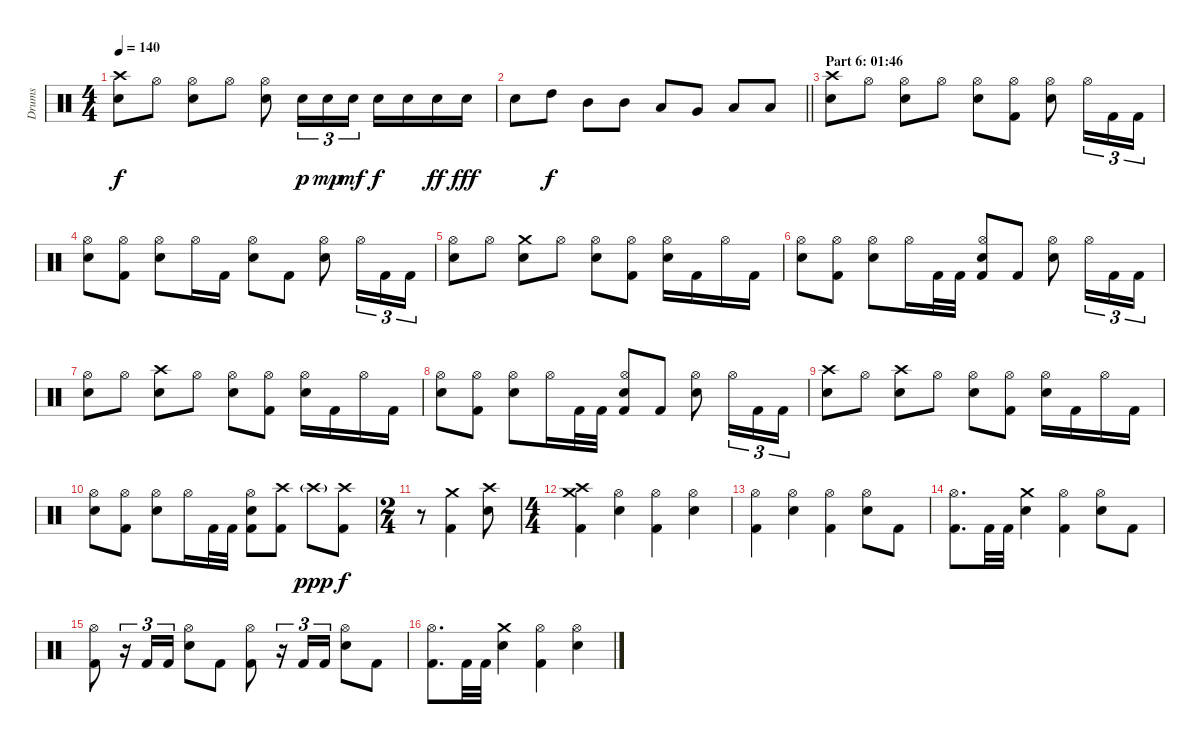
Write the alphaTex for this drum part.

\track ("Drums" "Drums") {instrument percussion}
\staff {score}
\articulation defaults
\ts (4 4)
\tempo 140
\clef neutral
\ks c
("Crash high (hit)" "Electric Snare (hit)").8{dy f} "Hi-Hat (open)".8 ("Hi-Hat (open)" "Electric Snare (hit)").8 "Hi-Hat (open)".8 ("Hi-Hat (open)" "Electric Snare (hit)").8 "Electric Snare (hit)".16{tu (3 2) dy p} "Electric Snare (hit)".16{tu (3 2) dy mp} "Electric Snare (hit)".16{tu (3 2) dy mf} "Electric Snare (hit)".16{dy f} "Electric Snare (hit)".16 "Electric Snare (hit)".16{dy ff} "Electric Snare (hit)".16{dy fff} |
\barLineRight lightlight "Electric Snare (hit)".8 "High Tom (hit)".8{dy f} "Mid Tom (hit)".8 "Mid Tom (hit)".8 "Low Tom (hit)".8 "Very Low Tom (hit)".8 "Low Floor Tom (hit)".8 "Low Floor Tom (hit)".8
|
\section ("" "Part 6: 01:46")
("Crash high (hit)" "Electric Snare (hit)").8 "Hi-Hat (open)".8 ("Hi-Hat (open)" "Electric Snare (hit)").8 "Hi-Hat (open)".8 ("Hi-Hat (open)" "Electric Snare (hit)").8 ("Hi-Hat (open)" "Kick (hit) 2").8 ("Hi-Hat (open)" "Electric Snare (hit)").8 "Hi-Hat (open)".16{tu (3 2)} "Kick (hit) 2".16{tu (3 2)} "Kick (hit) 2".16{tu (3 2)} |
("Hi-Hat (open)" "Electric Snare (hit)").8 ("Hi-Hat (open)" "Kick (hit) 2").8 ("Hi-Hat (open)" "Electric Snare (hit)").8 "Hi-Hat (open)".16 "Kick (hit) 2".16 ("Hi-Hat (open)" "Electric Snare (hit)").8 "Kick (hit) 2".8 ("Hi-Hat (open)" "Electric Snare (hit)").8 "Hi-Hat (open)".16{tu (3 2)} "Kick (hit) 2".16{tu (3 2)} "Kick (hit) 2".16{tu (3 2)} |
("Hi-Hat (open)" "Electric Snare (hit)").8 "Hi-Hat (open)".8 ("Crash medium (hit)" "Electric Snare (hit)").8 "Hi-Hat (open)".8 ("Hi-Hat (open)" "Electric Snare (hit)").8 ("Hi-Hat (open)" "Kick (hit) 2").8 ("Hi-Hat (open)" "Electric Snare (hit)").16 "Kick (hit) 2".16 "Hi-Hat (open)".16 "Kick (hit) 2".16 |
("Hi-Hat (open)" "Electric Snare (hit)").8 ("Hi-Hat (open)" "Kick (hit) 2").8 ("Hi-Hat (open)" "Electric Snare (hit)").8 "Hi-Hat (open)".16 "Kick (hit) 2".32 "Kick (hit) 2".32 ("Hi-Hat (open)" "Electric Snare (hit)" "Kick (hit) 2").8 "Kick (hit) 2".8 ("Hi-Hat (open)" "Electric Snare (hit)").8 "Hi-Hat (open)".16{tu (3 2)} "Kick (hit) 2".16{tu (3 2)} "Kick (hit) 2".16{tu (3 2)} |
("Hi-Hat (open)" "Electric Snare (hit)").8 "Hi-Hat (open)".8 ("Crash high (hit)" "Electric Snare (hit)").8 "Hi-Hat (open)".8 ("Hi-Hat (open)" "Electric Snare (hit)").8 ("Hi-Hat (open)" "Kick (hit) 2").8 ("Hi-Hat (open)" "Electric Snare (hit)").16 "Kick (hit) 2".16 "Hi-Hat (open)".16 "Kick (hit) 2".16 |
("Hi-Hat (open)" "Electric Snare (hit)").8 ("Hi-Hat (open)" "Kick (hit) 2").8 ("Hi-Hat (open)" "Electric Snare (hit)").8 "Hi-Hat (open)".16 "Kick (hit) 2".32 "Kick (hit) 2".32 ("Hi-Hat (open)" "Electric Snare (hit)" "Kick (hit) 2").8 "Kick (hit) 2".8 ("Hi-Hat (open)" "Electric Snare (hit)").8 "Hi-Hat (open)".16{tu (3 2)} "Kick (hit) 2".16{tu (3 2)} "Kick (hit) 2".16{tu (3 2)} |
("Crash high (hit)" "Electric Snare (hit)").8 "Hi-Hat (open)".8 ("Crash high (hit)" "Electric Snare (hit)").8 "Hi-Hat (open)".8 ("Hi-Hat (open)" "Electric Snare (hit)").8 ("Hi-Hat (open)" "Kick (hit) 2").8 ("Hi-Hat (open)" "Electric Snare (hit)").16 "Kick (hit) 2".16 "Hi-Hat (open)".16 "Kick (hit) 2".16 |
("Hi-Hat (open)" "Electric Snare (hit)").8 ("Hi-Hat (open)" "Kick (hit) 2").8 ("Hi-Hat (open)" "Electric Snare (hit)").8 "Hi-Hat (open)".16 "Kick (hit) 2".32 "Kick (hit) 2".32 ("Hi-Hat (open)" "Electric Snare (hit)" "Kick (hit) 2").8 ("Crash high (hit)" "Kick (hit) 2").8 "Crash high (hit)"{g}.8{dy ppp} ("Crash high (hit)" "Kick (hit) 2").8{dy f} |
\ts (2 4)
r.8 ("Crash medium (hit)" "Kick (hit) 2").4 ("Crash high (hit)" "Electric Snare (hit)").8 |
\ts (4 4)
("Crash high (hit)" "Crash medium (hit)" "Kick (hit) 2").4 ("Hi-Hat (open)" "Electric Snare (hit)").4 ("Hi-Hat (open)" "Kick (hit) 2").4 ("Hi-Hat (open)" "Electric Snare (hit)").4 |
("Hi-Hat (open)" "Kick (hit) 2").4 ("Hi-Hat (open)" "Electric Snare (hit)").4 ("Hi-Hat (open)" "Kick (hit) 2").4 ("Hi-Hat (open)" "Electric Snare (hit)").8 "Kick (hit) 2".8 |
("Hi-Hat (open)" "Kick (hit) 2").8{d} "Kick (hit) 2".32 "Kick (hit) 2".32 ("Crash medium (hit)" "Electric Snare (hit)").4 ("Hi-Hat (open)" "Kick (hit) 2").4 ("Hi-Hat (open)" "Electric Snare (hit)").8 "Kick (hit) 2".8 |
("Hi-Hat (open)" "Kick (hit) 2").8 r.16{tu (3 2)} "Kick (hit) 2".16{tu (3 2)} "Kick (hit) 2".16{tu (3 2)} ("Hi-Hat (open)" "Electric Snare (hit)").8 "Kick (hit) 2".8 ("Hi-Hat (open)" "Kick (hit) 2").8 r.16{tu (3 2)} "Kick (hit) 2".16{tu (3 2)} "Kick (hit) 2".16{tu (3 2)} ("Hi-Hat (open)" "Electric Snare (hit)").8 "Kick (hit) 2".8 |
("Hi-Hat (open)" "Kick (hit) 2").8{d} "Kick (hit) 2".32 "Kick (hit) 2".32 ("Crash medium (hit)" "Electric Snare (hit)").4 ("Hi-Hat (open)" "Kick (hit) 2").4 ("Hi-Hat (open)" "Electric Snare (hit)").4
